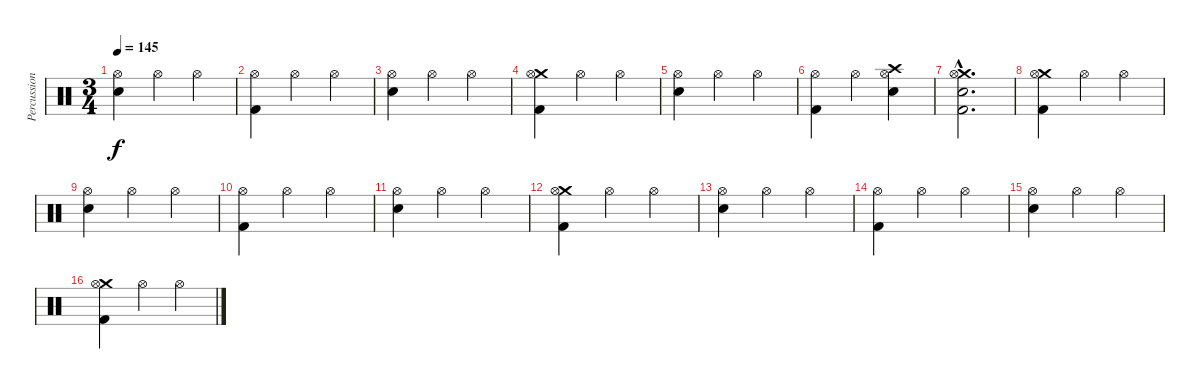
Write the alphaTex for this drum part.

\track ("Percussion" "Percussion") {instrument percussion}
\staff {score}
\articulation defaults
\ts (3 4)
\tempo 145
\clef neutral
\ks c
("Hi-Hat (open)" "Electric Snare (hit)").4{dy f} "Hi-Hat (open)".4 "Hi-Hat (open)".4 |
("Hi-Hat (open)" "Kick (hit) 2").4 "Hi-Hat (open)".4 "Hi-Hat (open)".4 |
("Hi-Hat (open)" "Electric Snare (hit)").4 "Hi-Hat (open)".4 "Hi-Hat (open)".4 |
("Crash medium (hit)" "Hi-Hat (open)" "Kick (hit) 2").4 "Hi-Hat (open)".4 "Hi-Hat (open)".4 |
("Hi-Hat (open)" "Electric Snare (hit)").4 "Hi-Hat (open)".4 "Hi-Hat (open)".4 |
("Hi-Hat (open)" "Kick (hit) 2").4 "Hi-Hat (open)".4 ("Crash high (hit)" "Hi-Hat (open)" "Electric Snare (hit)").4 |
("Crash medium (hit)"{hac} "Hi-Hat (open)"{hac} "Electric Snare (hit)"{hac} "Kick (hit) 2"{hac}).2{d} |
("Crash medium (hit)" "Hi-Hat (open)" "Kick (hit) 2").4 "Hi-Hat (open)".4 "Hi-Hat (open)".4 |
("Hi-Hat (open)" "Electric Snare (hit)").4 "Hi-Hat (open)".4 "Hi-Hat (open)".4 |
("Hi-Hat (open)" "Kick (hit) 2").4 "Hi-Hat (open)".4 "Hi-Hat (open)".4 |
("Hi-Hat (open)" "Electric Snare (hit)").4 "Hi-Hat (open)".4 "Hi-Hat (open)".4 |
("Crash medium (hit)" "Hi-Hat (open)" "Kick (hit) 2").4 "Hi-Hat (open)".4 "Hi-Hat (open)".4 |
("Hi-Hat (open)" "Electric Snare (hit)").4 "Hi-Hat (open)".4 "Hi-Hat (open)".4 |
("Hi-Hat (open)" "Kick (hit) 2").4 "Hi-Hat (open)".4 "Hi-Hat (open)".4 |
("Hi-Hat (open)" "Electric Snare (hit)").4 "Hi-Hat (open)".4 "Hi-Hat (open)".4 |
("Crash medium (hit)" "Hi-Hat (open)" "Kick (hit) 2").4 "Hi-Hat (open)".4 "Hi-Hat (open)".4
